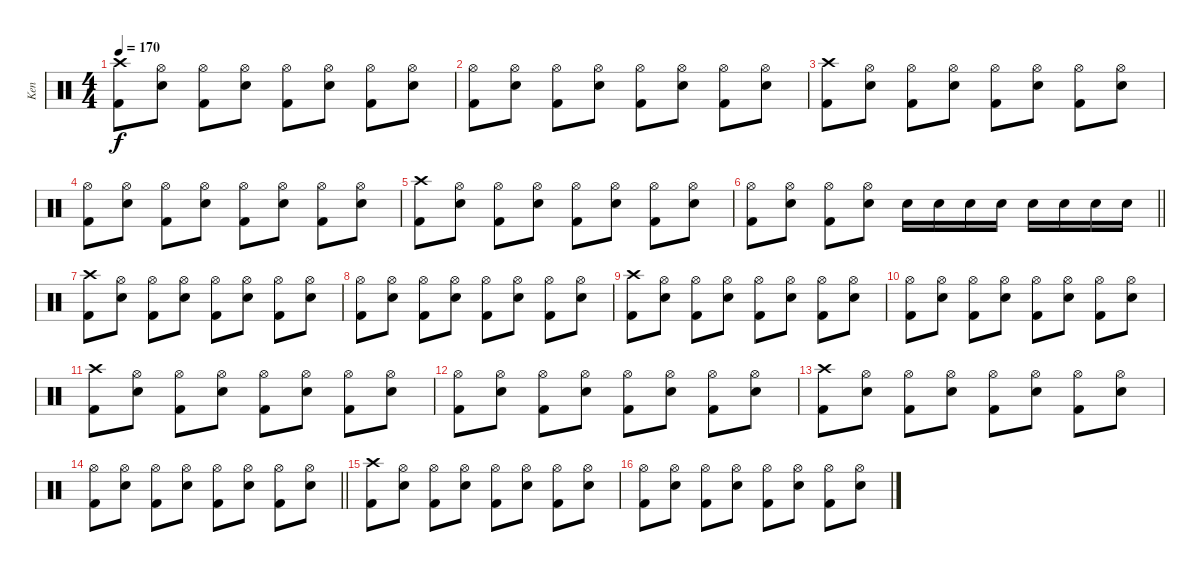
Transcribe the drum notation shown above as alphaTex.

\track ("Ken" "Ken") {instrument percussion}
\staff {score}
\articulation defaults
\ts (4 4)
\tempo 170
\clef neutral
\ks c
("Crash high (hit)" "Kick (hit) 2").8{dy f} ("Hi-Hat (open)" "Snare (hit) 2").8 ("Hi-Hat (open)" "Kick (hit) 2").8 ("Hi-Hat (open)" "Snare (hit) 2").8 ("Hi-Hat (open)" "Kick (hit) 2").8 ("Hi-Hat (open)" "Snare (hit) 2").8 ("Hi-Hat (open)" "Kick (hit) 2").8 ("Hi-Hat (open)" "Snare (hit) 2").8 |
("Hi-Hat (open)" "Kick (hit) 2").8 ("Hi-Hat (open)" "Snare (hit) 2").8 ("Hi-Hat (open)" "Kick (hit) 2").8 ("Hi-Hat (open)" "Snare (hit) 2").8 ("Hi-Hat (open)" "Kick (hit) 2").8 ("Hi-Hat (open)" "Snare (hit) 2").8 ("Hi-Hat (open)" "Kick (hit) 2").8 ("Hi-Hat (open)" "Snare (hit) 2").8 |
("Crash high (hit)" "Kick (hit) 2").8 ("Hi-Hat (open)" "Snare (hit) 2").8 ("Hi-Hat (open)" "Kick (hit) 2").8 ("Hi-Hat (open)" "Snare (hit) 2").8 ("Hi-Hat (open)" "Kick (hit) 2").8 ("Hi-Hat (open)" "Snare (hit) 2").8 ("Hi-Hat (open)" "Kick (hit) 2").8 ("Hi-Hat (open)" "Snare (hit) 2").8 |
("Hi-Hat (open)" "Kick (hit) 2").8 ("Hi-Hat (open)" "Snare (hit) 2").8 ("Hi-Hat (open)" "Kick (hit) 2").8 ("Hi-Hat (open)" "Snare (hit) 2").8 ("Hi-Hat (open)" "Kick (hit) 2").8 ("Hi-Hat (open)" "Snare (hit) 2").8 ("Hi-Hat (open)" "Kick (hit) 2").8 ("Hi-Hat (open)" "Snare (hit) 2").8 |
("Crash high (hit)" "Kick (hit) 2").8 ("Hi-Hat (open)" "Snare (hit) 2").8 ("Hi-Hat (open)" "Kick (hit) 2").8 ("Hi-Hat (open)" "Snare (hit) 2").8 ("Hi-Hat (open)" "Kick (hit) 2").8 ("Hi-Hat (open)" "Snare (hit) 2").8 ("Hi-Hat (open)" "Kick (hit) 2").8 ("Hi-Hat (open)" "Snare (hit) 2").8 |
\barLineRight lightlight
("Hi-Hat (open)" "Kick (hit) 2").8 ("Hi-Hat (open)" "Snare (hit) 2").8 ("Hi-Hat (open)" "Kick (hit) 2").8 ("Hi-Hat (open)" "Snare (hit) 2").8 "Snare (hit) 2".16 "Snare (hit) 2".16 "Snare (hit) 2".16 "Snare (hit) 2".16 "Snare (hit) 2".16 "Snare (hit) 2".16 "Snare (hit) 2".16 "Snare (hit) 2".16 |
("Crash high (hit)" "Kick (hit) 2").8 ("Hi-Hat (open)" "Snare (hit) 2").8 ("Hi-Hat (open)" "Kick (hit) 2").8 ("Hi-Hat (open)" "Snare (hit) 2").8 ("Hi-Hat (open)" "Kick (hit) 2").8 ("Hi-Hat (open)" "Snare (hit) 2").8 ("Hi-Hat (open)" "Kick (hit) 2").8 ("Hi-Hat (open)" "Snare (hit) 2").8 |
("Hi-Hat (open)" "Kick (hit) 2").8 ("Hi-Hat (open)" "Snare (hit) 2").8 ("Hi-Hat (open)" "Kick (hit) 2").8 ("Hi-Hat (open)" "Snare (hit) 2").8 ("Hi-Hat (open)" "Kick (hit) 2").8 ("Hi-Hat (open)" "Snare (hit) 2").8 ("Hi-Hat (open)" "Kick (hit) 2").8 ("Hi-Hat (open)" "Snare (hit) 2").8 |
("Crash high (hit)" "Kick (hit) 2").8 ("Hi-Hat (open)" "Snare (hit) 2").8 ("Hi-Hat (open)" "Kick (hit) 2").8 ("Hi-Hat (open)" "Snare (hit) 2").8 ("Hi-Hat (open)" "Kick (hit) 2").8 ("Hi-Hat (open)" "Snare (hit) 2").8 ("Hi-Hat (open)" "Kick (hit) 2").8 ("Hi-Hat (open)" "Snare (hit) 2").8 |
("Hi-Hat (open)" "Kick (hit) 2").8 ("Hi-Hat (open)" "Snare (hit) 2").8 ("Hi-Hat (open)" "Kick (hit) 2").8 ("Hi-Hat (open)" "Snare (hit) 2").8 ("Hi-Hat (open)" "Kick (hit) 2").8 ("Hi-Hat (open)" "Snare (hit) 2").8 ("Hi-Hat (open)" "Kick (hit) 2").8 ("Hi-Hat (open)" "Snare (hit) 2").8 |
("Crash high (hit)" "Kick (hit) 2").8 ("Hi-Hat (open)" "Snare (hit) 2").8 ("Hi-Hat (open)" "Kick (hit) 2").8 ("Hi-Hat (open)" "Snare (hit) 2").8 ("Hi-Hat (open)" "Kick (hit) 2").8 ("Hi-Hat (open)" "Snare (hit) 2").8 ("Hi-Hat (open)" "Kick (hit) 2").8 ("Hi-Hat (open)" "Snare (hit) 2").8 |
("Hi-Hat (open)" "Kick (hit) 2").8 ("Hi-Hat (open)" "Snare (hit) 2").8 ("Hi-Hat (open)" "Kick (hit) 2").8 ("Hi-Hat (open)" "Snare (hit) 2").8 ("Hi-Hat (open)" "Kick (hit) 2").8 ("Hi-Hat (open)" "Snare (hit) 2").8 ("Hi-Hat (open)" "Kick (hit) 2").8 ("Hi-Hat (open)" "Snare (hit) 2").8 |
("Crash high (hit)" "Kick (hit) 2").8 ("Hi-Hat (open)" "Snare (hit) 2").8 ("Hi-Hat (open)" "Kick (hit) 2").8 ("Hi-Hat (open)" "Snare (hit) 2").8 ("Hi-Hat (open)" "Kick (hit) 2").8 ("Hi-Hat (open)" "Snare (hit) 2").8 ("Hi-Hat (open)" "Kick (hit) 2").8 ("Hi-Hat (open)" "Snare (hit) 2").8 |
\barLineRight lightlight
("Hi-Hat (open)" "Kick (hit) 2").8 ("Hi-Hat (open)" "Snare (hit) 2").8 ("Hi-Hat (open)" "Kick (hit) 2").8 ("Hi-Hat (open)" "Snare (hit) 2").8 ("Hi-Hat (open)" "Kick (hit) 2").8 ("Hi-Hat (open)" "Snare (hit) 2").8 ("Hi-Hat (open)" "Kick (hit) 2").8 ("Hi-Hat (open)" "Snare (hit) 2").8 |
("Crash high (hit)" "Kick (hit) 2").8 ("Hi-Hat (open)" "Snare (hit) 2").8 ("Hi-Hat (open)" "Kick (hit) 2").8 ("Hi-Hat (open)" "Snare (hit) 2").8 ("Hi-Hat (open)" "Kick (hit) 2").8 ("Hi-Hat (open)" "Snare (hit) 2").8 ("Hi-Hat (open)" "Kick (hit) 2").8 ("Hi-Hat (open)" "Snare (hit) 2").8 |
("Hi-Hat (open)" "Kick (hit) 2").8 ("Hi-Hat (open)" "Snare (hit) 2").8 ("Hi-Hat (open)" "Kick (hit) 2").8 ("Hi-Hat (open)" "Snare (hit) 2").8 ("Hi-Hat (open)" "Kick (hit) 2").8 ("Hi-Hat (open)" "Snare (hit) 2").8 ("Hi-Hat (open)" "Kick (hit) 2").8 ("Hi-Hat (open)" "Snare (hit) 2").8
